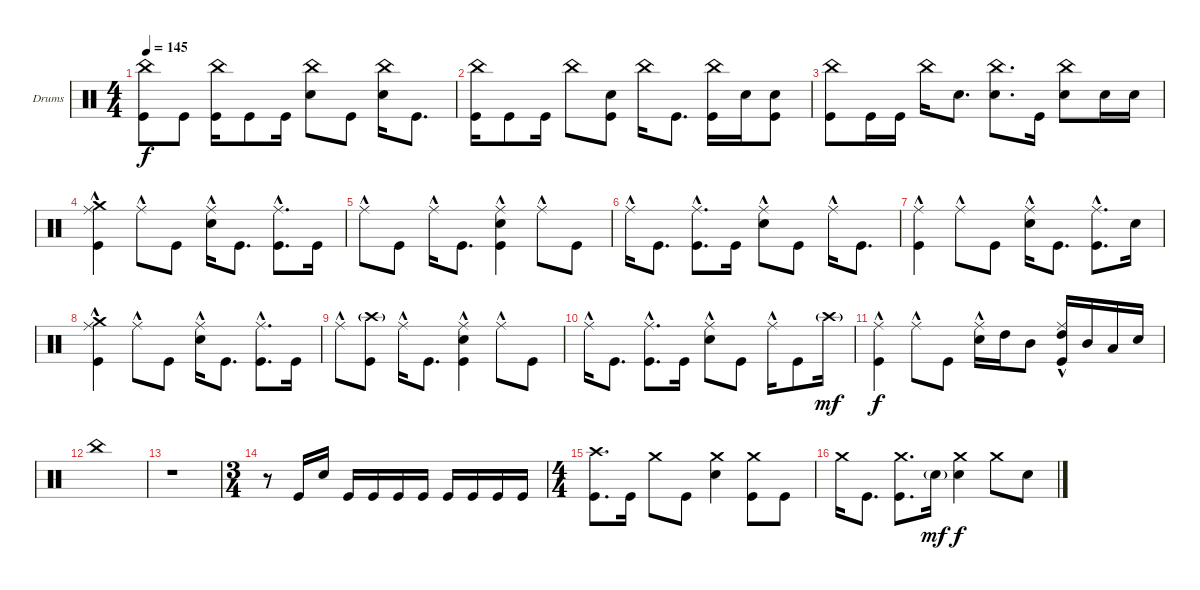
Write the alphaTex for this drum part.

\bracketExtendMode groupsimilarinstruments
\firstSystemTrackNameOrientation horizontal
\otherSystemsTrackNameOrientation horizontal
\track ("Drumkit" "Drums") {instrument percussion}
\staff {score}
\articulation defaults
\ts (4 4)
\tempo 145
\clef neutral
\ks c
("China (hit)" "Kick (hit)").8{dy f} "Kick (hit)".8 ("China (hit)" "Kick (hit)").16 "Kick (hit)".8 "Kick (hit)".16 ("China (hit)" "Snare (hit) 2").8 "Kick (hit)".8 ("China (hit)" "Snare (hit) 2").16 "Kick (hit)".8{d} |
("China (hit)" "Kick (hit)").16 "Kick (hit)".8 "Kick (hit)".16 "China (hit)".8 ("Snare (hit) 2" "Kick (hit)").8 "China (hit)".16 "Kick (hit)".8{d} ("China (hit)" "Kick (hit)").16 "Snare (hit) 2".16 ("Snare (hit) 2" "Kick (hit)").8 |
("China (hit)" "Kick (hit)").8 "Kick (hit)".16 "Kick (hit)".16 "China (hit)".16 "Snare (hit) 2".8{d} ("China (hit)" "Snare (hit) 2").8{d} "Kick (hit)".16 ("China (hit)" "Snare (hit) 2").8 "Snare (hit) 2".16 "Snare (hit) 2".16 |
("Ride (middle)"{hac} "Crash medium (hit)" "Kick (hit)").4 "Ride (middle)"{hac}.8 "Kick (hit)".8 ("Ride (middle)"{hac} "Snare (hit) 2").16 "Kick (hit)".8{d} ("Ride (middle)"{hac} "Kick (hit)").8{d} "Kick (hit)".16 |
"Ride (middle)"{hac}.8 "Kick (hit)".8 "Ride (middle)"{hac}.16 "Kick (hit)".8{d} ("Ride (middle)"{hac} "Snare (hit) 2" "Kick (hit)").4 "Ride (middle)"{hac}.8 "Kick (hit)".8 |
"Ride (middle)"{hac}.16 "Kick (hit)".8{d} ("Ride (middle)"{hac} "Kick (hit)").8{d} "Kick (hit)".16 ("Ride (middle)"{hac} "Snare (hit) 2").8 "Kick (hit)".8 "Ride (middle)"{hac}.16 "Kick (hit)".8{d} |
("Ride (middle)"{hac} "Kick (hit)").4 "Ride (middle)"{hac}.8 "Kick (hit)".8 ("Ride (middle)"{hac} "Snare (hit) 2").16 "Kick (hit)".8{d} ("Ride (middle)"{hac} "Kick (hit)").8{d} "Snare (hit) 2".16 |
("Ride (middle)"{hac} "Crash medium (hit)" "Kick (hit)").4 "Ride (middle)"{hac}.8 "Kick (hit)".8 ("Ride (middle)"{hac} "Snare (hit) 2").16 "Kick (hit)".8{d} ("Ride (middle)"{hac} "Kick (hit)").8{d} "Kick (hit)".16 |
"Ride (middle)"{hac}.8 ("Crash high (hit)"{g} "Kick (hit)").8 "Ride (middle)"{hac}.16 "Kick (hit)".8{d} ("Ride (middle)"{hac} "Snare (hit) 2" "Kick (hit)").4 "Ride (middle)"{hac}.8 "Kick (hit)".8 |
"Ride (middle)"{hac}.16 "Kick (hit)".8{d} ("Ride (middle)"{hac} "Kick (hit)").8{d} "Kick (hit)".16 ("Ride (middle)"{hac} "Snare (hit) 2").8 "Kick (hit)".8 "Ride (middle)"{hac}.16 "Kick (hit)".8 "Crash high (hit)"{g}.16{dy mf} |
("Ride (middle)"{hac} "Kick (hit)").4{dy f} "Ride (middle)"{hac}.8 "Kick (hit)".8 ("Ride (middle)"{hac} "Snare (hit) 2").16 "High Tom (hit)".16 "Mid Tom (hit)".8 ("Ride (middle)"{hac} "High Tom (hit)" "Kick (hit)").16 "Mid Tom (hit)".16 "Low Tom (hit)".16 "Snare (hit) 2".16 |
"China (hit)".1 |
r.1 |
\ts (3 4)
\beaming (8 2 2 2 2)
r.8 "Kick (hit)".16 "Snare (hit) 2".16 "Kick (hit)".16 "Kick (hit)".16 "Kick (hit)".16 "Kick (hit)".16 "Kick (hit)".16 "Kick (hit)".16 "Kick (hit)".16 "Kick (hit)".16 |
\ts (4 4)
\beaming (8 2 2 2 2)
("Crash high (hit)" "Kick (hit)").8{d} "Kick (hit)".16 "Crash medium (hit)".8 "Kick (hit)".8 ("Crash medium (hit)" "Snare (hit) 2").4 ("Crash medium (hit)" "Kick (hit)").8 "Kick (hit)".8 |
"Crash medium (hit)".16 "Kick (hit)".8{d} ("Crash medium (hit)" "Kick (hit)").8{d} "Snare (hit) 2"{g}.16{dy mf} ("Crash medium (hit)" "Snare (hit) 2").4{dy f} "Crash medium (hit)".8 "Snare (hit) 2".8
